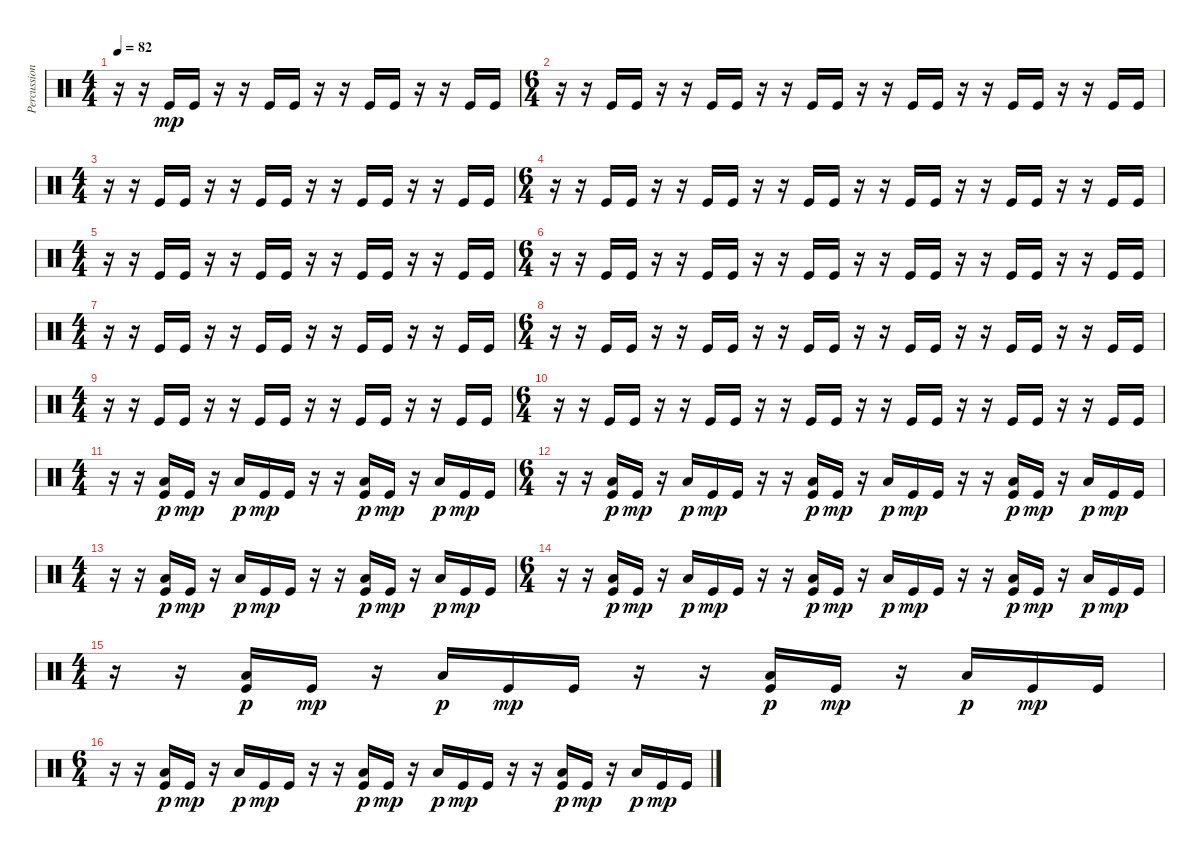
\track ("Percussion" "Percussion") {instrument percussion}
\staff {score}
\articulation defaults
\ts (4 4)
\tempo 82
\clef neutral
\ks c
r.16{dy mp} r.16 "Kick (hit)".16 "Kick (hit)".16 r.16 r.16 "Kick (hit)".16 "Kick (hit)".16 r.16 r.16 "Kick (hit)".16 "Kick (hit)".16 r.16 r.16 "Kick (hit)".16 "Kick (hit)".16 |
\ts (6 4)
r.16 r.16 "Kick (hit)".16 "Kick (hit)".16 r.16 r.16 "Kick (hit)".16 "Kick (hit)".16 r.16 r.16 "Kick (hit)".16 "Kick (hit)".16 r.16 r.16 "Kick (hit)".16 "Kick (hit)".16 r.16 r.16 "Kick (hit)".16 "Kick (hit)".16 r.16 r.16 "Kick (hit)".16 "Kick (hit)".16 |
\ts (4 4)
r.16 r.16 "Kick (hit)".16 "Kick (hit)".16 r.16 r.16 "Kick (hit)".16 "Kick (hit)".16 r.16 r.16 "Kick (hit)".16 "Kick (hit)".16 r.16 r.16 "Kick (hit)".16 "Kick (hit)".16 |
\ts (6 4)
r.16 r.16 "Kick (hit)".16 "Kick (hit)".16 r.16 r.16 "Kick (hit)".16 "Kick (hit)".16 r.16 r.16 "Kick (hit)".16 "Kick (hit)".16 r.16 r.16 "Kick (hit)".16 "Kick (hit)".16 r.16 r.16 "Kick (hit)".16 "Kick (hit)".16 r.16 r.16 "Kick (hit)".16 "Kick (hit)".16 |
\ts (4 4)
r.16 r.16 "Kick (hit)".16 "Kick (hit)".16 r.16 r.16 "Kick (hit)".16 "Kick (hit)".16 r.16 r.16 "Kick (hit)".16 "Kick (hit)".16 r.16 r.16 "Kick (hit)".16 "Kick (hit)".16 |
\ts (6 4)
r.16 r.16 "Kick (hit)".16 "Kick (hit)".16 r.16 r.16 "Kick (hit)".16 "Kick (hit)".16 r.16 r.16 "Kick (hit)".16 "Kick (hit)".16 r.16 r.16 "Kick (hit)".16 "Kick (hit)".16 r.16 r.16 "Kick (hit)".16 "Kick (hit)".16 r.16 r.16 "Kick (hit)".16 "Kick (hit)".16 |
\ts (4 4)
r.16 r.16 "Kick (hit)".16 "Kick (hit)".16 r.16 r.16 "Kick (hit)".16 "Kick (hit)".16 r.16 r.16 "Kick (hit)".16 "Kick (hit)".16 r.16 r.16 "Kick (hit)".16 "Kick (hit)".16 |
\ts (6 4)
r.16 r.16 "Kick (hit)".16 "Kick (hit)".16 r.16 r.16 "Kick (hit)".16 "Kick (hit)".16 r.16 r.16 "Kick (hit)".16 "Kick (hit)".16 r.16 r.16 "Kick (hit)".16 "Kick (hit)".16 r.16 r.16 "Kick (hit)".16 "Kick (hit)".16 r.16 r.16 "Kick (hit)".16 "Kick (hit)".16 |
\ts (4 4)
r.16 r.16 "Kick (hit)".16 "Kick (hit)".16 r.16 r.16 "Kick (hit)".16 "Kick (hit)".16 r.16 r.16 "Kick (hit)".16 "Kick (hit)".16 r.16 r.16 "Kick (hit)".16 "Kick (hit)".16 |
\ts (6 4)
r.16 r.16 "Kick (hit)".16 "Kick (hit)".16 r.16 r.16 "Kick (hit)".16 "Kick (hit)".16 r.16 r.16 "Kick (hit)".16 "Kick (hit)".16 r.16 r.16 "Kick (hit)".16 "Kick (hit)".16 r.16 r.16 "Kick (hit)".16 "Kick (hit)".16 r.16 r.16 "Kick (hit)".16 "Kick (hit)".16 |
\ts (4 4)
r.16 r.16 ("Kick (hit)" "Low Floor Tom (hit)").16{dy p} "Kick (hit)".16{dy mp} r.16 "Low Floor Tom (hit)".16{dy p} "Kick (hit)".16{dy mp} "Kick (hit)".16 r.16 r.16 ("Kick (hit)" "Low Floor Tom (hit)").16{dy p} "Kick (hit)".16{dy mp} r.16 "Low Floor Tom (hit)".16{dy p} "Kick (hit)".16{dy mp} "Kick (hit)".16 |
\ts (6 4)
r.16 r.16 ("Kick (hit)" "Low Floor Tom (hit)").16{dy p} "Kick (hit)".16{dy mp} r.16 "Low Floor Tom (hit)".16{dy p} "Kick (hit)".16{dy mp} "Kick (hit)".16 r.16 r.16 ("Kick (hit)" "Low Floor Tom (hit)").16{dy p} "Kick (hit)".16{dy mp} r.16 "Low Floor Tom (hit)".16{dy p} "Kick (hit)".16{dy mp} "Kick (hit)".16 r.16 r.16 ("Kick (hit)" "Low Floor Tom (hit)").16{dy p} "Kick (hit)".16{dy mp} r.16 "Low Floor Tom (hit)".16{dy p} "Kick (hit)".16{dy mp} "Kick (hit)".16 |
\ts (4 4)
r.16 r.16 ("Kick (hit)" "Low Floor Tom (hit)").16{dy p} "Kick (hit)".16{dy mp} r.16 "Low Floor Tom (hit)".16{dy p} "Kick (hit)".16{dy mp} "Kick (hit)".16 r.16 r.16 ("Kick (hit)" "Low Floor Tom (hit)").16{dy p} "Kick (hit)".16{dy mp} r.16 "Low Floor Tom (hit)".16{dy p} "Kick (hit)".16{dy mp} "Kick (hit)".16 |
\ts (6 4)
r.16 r.16 ("Kick (hit)" "Low Floor Tom (hit)").16{dy p} "Kick (hit)".16{dy mp} r.16 "Low Floor Tom (hit)".16{dy p} "Kick (hit)".16{dy mp} "Kick (hit)".16 r.16 r.16 ("Kick (hit)" "Low Floor Tom (hit)").16{dy p} "Kick (hit)".16{dy mp} r.16 "Low Floor Tom (hit)".16{dy p} "Kick (hit)".16{dy mp} "Kick (hit)".16 r.16 r.16 ("Kick (hit)" "Low Floor Tom (hit)").16{dy p} "Kick (hit)".16{dy mp} r.16 "Low Floor Tom (hit)".16{dy p} "Kick (hit)".16{dy mp} "Kick (hit)".16 |
\ts (4 4)
r.16 r.16 ("Kick (hit)" "Low Floor Tom (hit)").16{dy p} "Kick (hit)".16{dy mp} r.16 "Low Floor Tom (hit)".16{dy p} "Kick (hit)".16{dy mp} "Kick (hit)".16 r.16 r.16 ("Kick (hit)" "Low Floor Tom (hit)").16{dy p} "Kick (hit)".16{dy mp} r.16 "Low Floor Tom (hit)".16{dy p} "Kick (hit)".16{dy mp} "Kick (hit)".16 |
\ts (6 4)
r.16 r.16 ("Kick (hit)" "Low Floor Tom (hit)").16{dy p} "Kick (hit)".16{dy mp} r.16 "Low Floor Tom (hit)".16{dy p} "Kick (hit)".16{dy mp} "Kick (hit)".16 r.16 r.16 ("Kick (hit)" "Low Floor Tom (hit)").16{dy p} "Kick (hit)".16{dy mp} r.16 "Low Floor Tom (hit)".16{dy p} "Kick (hit)".16{dy mp} "Kick (hit)".16 r.16 r.16 ("Kick (hit)" "Low Floor Tom (hit)").16{dy p} "Kick (hit)".16{dy mp} r.16 "Low Floor Tom (hit)".16{dy p} "Kick (hit)".16{dy mp} "Kick (hit)".16
